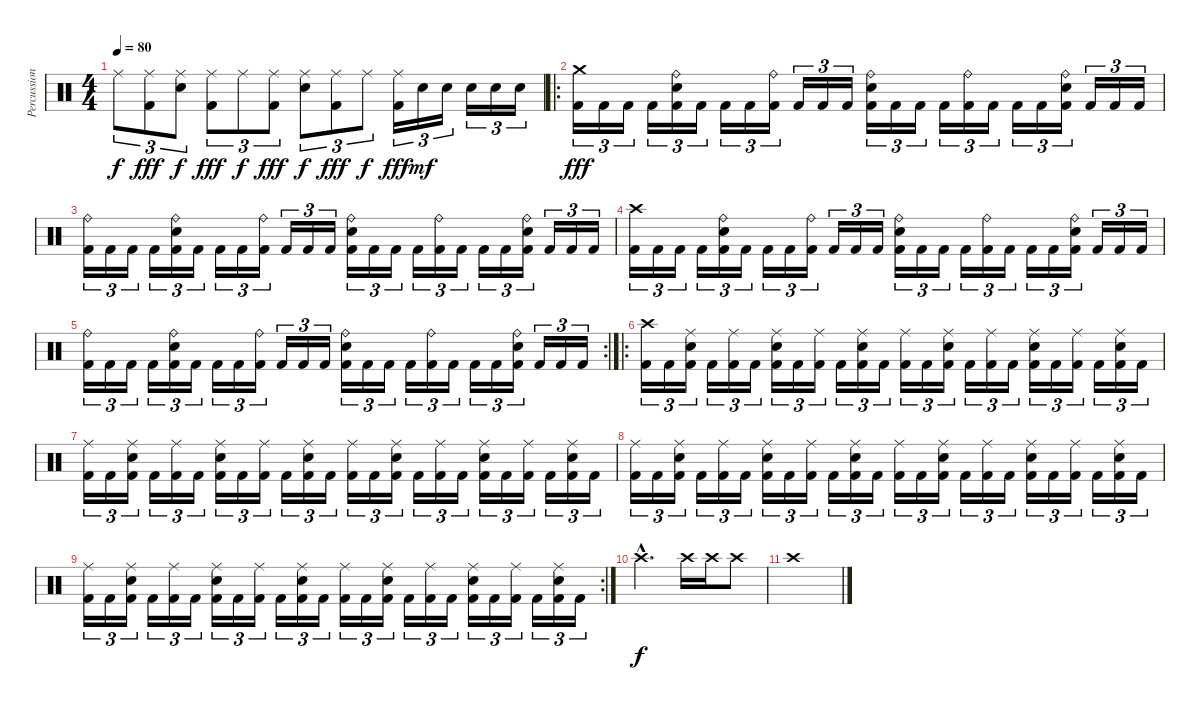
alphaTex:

\track ("Percussion" "Percussion") {instrument percussion}
\staff {score}
\articulation defaults
\ts (4 4)
\tempo 80
\clef neutral
\ks c "Ride (middle)".8{tu (3 2) dy f}
("Ride (middle)" "Kick (hit) 2").8{tu (3 2) dy fff} ("Ride (middle)" "Electric Snare (hit)").8{tu (3 2) dy f} ("Ride (middle)" "Kick (hit) 2").8{tu (3 2) dy fff} "Ride (middle)".8{tu (3 2) dy f} ("Ride (middle)" "Kick (hit) 2").8{tu (3 2) dy fff} ("Ride (middle)" "Electric Snare (hit)").8{tu (3 2) dy f} ("Ride (middle)" "Kick (hit) 2").8{tu (3 2) dy fff} "Ride (middle)".8{tu (3 2) dy f} ("Ride (middle)" "Kick (hit) 2").16{tu (3 2) dy fff} "Electric Snare (hit)".16{tu (3 2) dy mf} "Electric Snare (hit)".16{tu (3 2)} "Electric Snare (hit)".16{tu (3 2)} "Electric Snare (hit)".16{tu (3 2)} "Electric Snare (hit)".16{tu (3 2)} |
\ro
("Crash medium (hit)" "Kick (hit) 2").16{tu (3 2) dy fff} "Kick (hit) 2".16{tu (3 2)} "Kick (hit) 2".16{tu (3 2)} "Kick (hit) 2".16{tu (3 2)} ("Ride (bell)" "Electric Snare (hit)" "Kick (hit) 2").16{tu (3 2)} "Kick (hit) 2".16{tu (3 2)} "Kick (hit) 2".16{tu (3 2)} "Kick (hit) 2".16{tu (3 2)} ("Ride (bell)" "Kick (hit) 2").16{tu (3 2)} "Kick (hit) 2".16{tu (3 2)} "Kick (hit) 2".16{tu (3 2)} "Kick (hit) 2".16{tu (3 2)} ("Ride (bell)" "Electric Snare (hit)" "Kick (hit) 2").16{tu (3 2)} "Kick (hit) 2".16{tu (3 2)} "Kick (hit) 2".16{tu (3 2)} "Kick (hit) 2".16{tu (3 2)} ("Ride (bell)" "Kick (hit) 2").16{tu (3 2)} "Kick (hit) 2".16{tu (3 2)} "Kick (hit) 2".16{tu (3 2)} "Kick (hit) 2".16{tu (3 2)} ("Ride (bell)" "Electric Snare (hit)" "Kick (hit) 2").16{tu (3 2)} "Kick (hit) 2".16{tu (3 2)} "Kick (hit) 2".16{tu (3 2)} "Kick (hit) 2".16{tu (3 2)} |
("Ride (bell)" "Kick (hit) 2").16{tu (3 2)} "Kick (hit) 2".16{tu (3 2)} "Kick (hit) 2".16{tu (3 2)} "Kick (hit) 2".16{tu (3 2)} ("Ride (bell)" "Electric Snare (hit)" "Kick (hit) 2").16{tu (3 2)} "Kick (hit) 2".16{tu (3 2)} "Kick (hit) 2".16{tu (3 2)} "Kick (hit) 2".16{tu (3 2)} ("Ride (bell)" "Kick (hit) 2").16{tu (3 2)} "Kick (hit) 2".16{tu (3 2)} "Kick (hit) 2".16{tu (3 2)} "Kick (hit) 2".16{tu (3 2)} ("Ride (bell)" "Electric Snare (hit)" "Kick (hit) 2").16{tu (3 2)} "Kick (hit) 2".16{tu (3 2)} "Kick (hit) 2".16{tu (3 2)} "Kick (hit) 2".16{tu (3 2)} ("Ride (bell)" "Kick (hit) 2").16{tu (3 2)} "Kick (hit) 2".16{tu (3 2)} "Kick (hit) 2".16{tu (3 2)} "Kick (hit) 2".16{tu (3 2)} ("Ride (bell)" "Electric Snare (hit)" "Kick (hit) 2").16{tu (3 2)} "Kick (hit) 2".16{tu (3 2)} "Kick (hit) 2".16{tu (3 2)} "Kick (hit) 2".16{tu (3 2)} |
("Crash high (hit)" "Kick (hit) 2").16{tu (3 2)} "Kick (hit) 2".16{tu (3 2)} "Kick (hit) 2".16{tu (3 2)} "Kick (hit) 2".16{tu (3 2)} ("Ride (bell)" "Electric Snare (hit)" "Kick (hit) 2").16{tu (3 2)} "Kick (hit) 2".16{tu (3 2)} "Kick (hit) 2".16{tu (3 2)} "Kick (hit) 2".16{tu (3 2)} ("Ride (bell)" "Kick (hit) 2").16{tu (3 2)} "Kick (hit) 2".16{tu (3 2)} "Kick (hit) 2".16{tu (3 2)} "Kick (hit) 2".16{tu (3 2)} ("Ride (bell)" "Electric Snare (hit)" "Kick (hit) 2").16{tu (3 2)} "Kick (hit) 2".16{tu (3 2)} "Kick (hit) 2".16{tu (3 2)} "Kick (hit) 2".16{tu (3 2)} ("Ride (bell)" "Kick (hit) 2").16{tu (3 2)} "Kick (hit) 2".16{tu (3 2)} "Kick (hit) 2".16{tu (3 2)} "Kick (hit) 2".16{tu (3 2)} ("Ride (bell)" "Electric Snare (hit)" "Kick (hit) 2").16{tu (3 2)} "Kick (hit) 2".16{tu (3 2)} "Kick (hit) 2".16{tu (3 2)} "Kick (hit) 2".16{tu (3 2)} |
\rc 2
("Ride (bell)" "Kick (hit) 2").16{tu (3 2)} "Kick (hit) 2".16{tu (3 2)} "Kick (hit) 2".16{tu (3 2)} "Kick (hit) 2".16{tu (3 2)} ("Ride (bell)" "Electric Snare (hit)" "Kick (hit) 2").16{tu (3 2)} "Kick (hit) 2".16{tu (3 2)} "Kick (hit) 2".16{tu (3 2)} "Kick (hit) 2".16{tu (3 2)} ("Ride (bell)" "Kick (hit) 2").16{tu (3 2)} "Kick (hit) 2".16{tu (3 2)} "Kick (hit) 2".16{tu (3 2)} "Kick (hit) 2".16{tu (3 2)} ("Ride (bell)" "Electric Snare (hit)" "Kick (hit) 2").16{tu (3 2)} "Kick (hit) 2".16{tu (3 2)} "Kick (hit) 2".16{tu (3 2)} "Kick (hit) 2".16{tu (3 2)} ("Ride (bell)" "Kick (hit) 2").16{tu (3 2)} "Kick (hit) 2".16{tu (3 2)} "Kick (hit) 2".16{tu (3 2)} "Kick (hit) 2".16{tu (3 2)} ("Ride (bell)" "Electric Snare (hit)" "Kick (hit) 2").16{tu (3 2)} "Kick (hit) 2".16{tu (3 2)} "Kick (hit) 2".16{tu (3 2)} "Kick (hit) 2".16{tu (3 2)} |
\ro
("Crash high (hit)" "Kick (hit) 2").16{tu (3 2)} "Kick (hit) 2".16{tu (3 2)} ("Ride (middle)" "Electric Snare (hit)" "Kick (hit) 2").16{tu (3 2)} "Kick (hit) 2".16{tu (3 2)} ("Ride (middle)" "Kick (hit) 2").16{tu (3 2)} "Kick (hit) 2".16{tu (3 2)} ("Ride (middle)" "Electric Snare (hit)" "Kick (hit) 2").16{tu (3 2)} "Kick (hit) 2".16{tu (3 2)} ("Ride (middle)" "Kick (hit) 2").16{tu (3 2)} "Kick (hit) 2".16{tu (3 2)} ("Ride (middle)" "Electric Snare (hit)" "Kick (hit) 2").16{tu (3 2)} "Kick (hit) 2".16{tu (3 2)} ("Ride (middle)" "Kick (hit) 2").16{tu (3 2)} "Kick (hit) 2".16{tu (3 2)} ("Ride (middle)" "Electric Snare (hit)" "Kick (hit) 2").16{tu (3 2)} "Kick (hit) 2".16{tu (3 2)} ("Ride (middle)" "Kick (hit) 2").16{tu (3 2)} "Kick (hit) 2".16{tu (3 2)} ("Ride (middle)" "Electric Snare (hit)" "Kick (hit) 2").16{tu (3 2)} "Kick (hit) 2".16{tu (3 2)} ("Ride (middle)" "Kick (hit) 2").16{tu (3 2)} "Kick (hit) 2".16{tu (3 2)} ("Ride (middle)" "Electric Snare (hit)" "Kick (hit) 2").16{tu (3 2)} "Kick (hit) 2".16{tu (3 2)} |
("Ride (middle)" "Kick (hit) 2").16{tu (3 2)} "Kick (hit) 2".16{tu (3 2)} ("Ride (middle)" "Electric Snare (hit)" "Kick (hit) 2").16{tu (3 2)} "Kick (hit) 2".16{tu (3 2)} ("Ride (middle)" "Kick (hit) 2").16{tu (3 2)} "Kick (hit) 2".16{tu (3 2)} ("Ride (middle)" "Electric Snare (hit)" "Kick (hit) 2").16{tu (3 2)} "Kick (hit) 2".16{tu (3 2)} ("Ride (middle)" "Kick (hit) 2").16{tu (3 2)} "Kick (hit) 2".16{tu (3 2)} ("Ride (middle)" "Electric Snare (hit)" "Kick (hit) 2").16{tu (3 2)} "Kick (hit) 2".16{tu (3 2)} ("Ride (middle)" "Kick (hit) 2").16{tu (3 2)} "Kick (hit) 2".16{tu (3 2)} ("Ride (middle)" "Electric Snare (hit)" "Kick (hit) 2").16{tu (3 2)} "Kick (hit) 2".16{tu (3 2)} ("Ride (middle)" "Kick (hit) 2").16{tu (3 2)} "Kick (hit) 2".16{tu (3 2)} ("Ride (middle)" "Electric Snare (hit)" "Kick (hit) 2").16{tu (3 2)} "Kick (hit) 2".16{tu (3 2)} ("Ride (middle)" "Kick (hit) 2").16{tu (3 2)} "Kick (hit) 2".16{tu (3 2)} ("Ride (middle)" "Electric Snare (hit)" "Kick (hit) 2").16{tu (3 2)} "Kick (hit) 2".16{tu (3 2)} |
("Ride (middle)" "Kick (hit) 2").16{tu (3 2)} "Kick (hit) 2".16{tu (3 2)} ("Ride (middle)" "Electric Snare (hit)" "Kick (hit) 2").16{tu (3 2)} "Kick (hit) 2".16{tu (3 2)} ("Ride (middle)" "Kick (hit) 2").16{tu (3 2)} "Kick (hit) 2".16{tu (3 2)} ("Ride (middle)" "Electric Snare (hit)" "Kick (hit) 2").16{tu (3 2)} "Kick (hit) 2".16{tu (3 2)} ("Ride (middle)" "Kick (hit) 2").16{tu (3 2)} "Kick (hit) 2".16{tu (3 2)} ("Ride (middle)" "Electric Snare (hit)" "Kick (hit) 2").16{tu (3 2)} "Kick (hit) 2".16{tu (3 2)} ("Ride (middle)" "Kick (hit) 2").16{tu (3 2)} "Kick (hit) 2".16{tu (3 2)} ("Ride (middle)" "Electric Snare (hit)" "Kick (hit) 2").16{tu (3 2)} "Kick (hit) 2".16{tu (3 2)} ("Ride (middle)" "Kick (hit) 2").16{tu (3 2)} "Kick (hit) 2".16{tu (3 2)} ("Ride (middle)" "Electric Snare (hit)" "Kick (hit) 2").16{tu (3 2)} "Kick (hit) 2".16{tu (3 2)} ("Ride (middle)" "Kick (hit) 2").16{tu (3 2)} "Kick (hit) 2".16{tu (3 2)} ("Ride (middle)" "Electric Snare (hit)" "Kick (hit) 2").16{tu (3 2)} "Kick (hit) 2".16{tu (3 2)} |
\rc 2
("Ride (middle)" "Kick (hit) 2").16{tu (3 2)} "Kick (hit) 2".16{tu (3 2)} ("Ride (middle)" "Electric Snare (hit)" "Kick (hit) 2").16{tu (3 2)} "Kick (hit) 2".16{tu (3 2)} ("Ride (middle)" "Kick (hit) 2").16{tu (3 2)} "Kick (hit) 2".16{tu (3 2)} ("Ride (middle)" "Electric Snare (hit)" "Kick (hit) 2").16{tu (3 2)} "Kick (hit) 2".16{tu (3 2)} ("Ride (middle)" "Kick (hit) 2").16{tu (3 2)} "Kick (hit) 2".16{tu (3 2)} ("Ride (middle)" "Electric Snare (hit)" "Kick (hit) 2").16{tu (3 2)} "Kick (hit) 2".16{tu (3 2)} ("Ride (middle)" "Kick (hit) 2").16{tu (3 2)} "Kick (hit) 2".16{tu (3 2)} ("Ride (middle)" "Electric Snare (hit)" "Kick (hit) 2").16{tu (3 2)} "Kick (hit) 2".16{tu (3 2)} ("Ride (middle)" "Kick (hit) 2").16{tu (3 2)} "Kick (hit) 2".16{tu (3 2)} ("Ride (middle)" "Electric Snare (hit)" "Kick (hit) 2").16{tu (3 2)} "Kick (hit) 2".16{tu (3 2)} ("Ride (middle)" "Kick (hit) 2").16{tu (3 2)} "Kick (hit) 2".16{tu (3 2)} ("Ride (middle)" "Electric Snare (hit)" "Kick (hit) 2").16{tu (3 2)} "Kick (hit) 2".16{tu (3 2)} |
"Crash high (hit)"{hac}.2{d dy f} "Crash high (hit)".16 "Crash high (hit)".16 "Crash high (hit)".8 |
"Crash high (hit)".1
